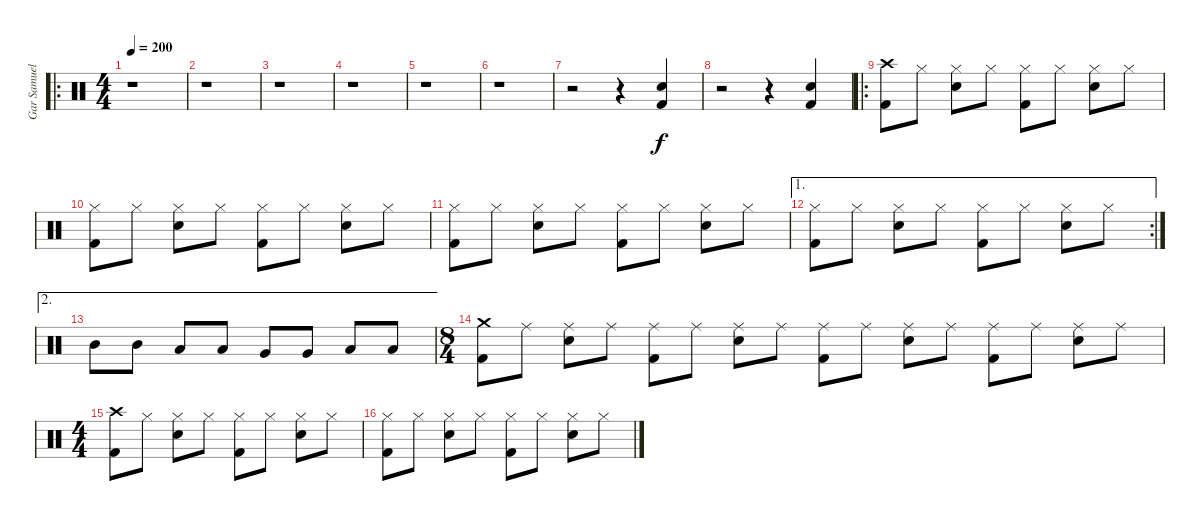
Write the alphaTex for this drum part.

\track ("Gar Samuelson" "Gar Samuel") {instrument percussion}
\staff {score}
\articulation defaults
\ro
\ts (4 4)
\tempo 200
\clef neutral
\ks c
r.1{dy f} |
r.1 |
r.1 |
r.1 |
r.1 |
r.1 |
r.2 r.4 ("Snare (hit) 2" "Kick (hit) 2").4 |
r.2 r.4 ("Snare (hit) 2" "Kick (hit) 2").4 |
\ro
("Crash high (hit)" "Kick (hit) 2").8 "Hi-Hat (closed)".8 ("Hi-Hat (closed)" "Snare (hit) 2").8 "Hi-Hat (closed)".8 ("Hi-Hat (closed)" "Kick (hit) 2").8 "Hi-Hat (closed)".8 ("Hi-Hat (closed)" "Snare (hit) 2").8 "Hi-Hat (closed)".8 |
("Hi-Hat (closed)" "Kick (hit) 2").8 "Hi-Hat (closed)".8 ("Hi-Hat (closed)" "Snare (hit) 2").8 "Hi-Hat (closed)".8 ("Hi-Hat (closed)" "Kick (hit) 2").8 "Hi-Hat (closed)".8 ("Hi-Hat (closed)" "Snare (hit) 2").8 "Hi-Hat (closed)".8 |
("Hi-Hat (closed)" "Kick (hit) 2").8 "Hi-Hat (closed)".8 ("Hi-Hat (closed)" "Snare (hit) 2").8 "Hi-Hat (closed)".8 ("Hi-Hat (closed)" "Kick (hit) 2").8 "Hi-Hat (closed)".8 ("Hi-Hat (closed)" "Snare (hit) 2").8 "Hi-Hat (closed)".8 |
\ae 1
\rc 2
("Hi-Hat (closed)" "Kick (hit) 2").8 "Hi-Hat (closed)".8 ("Hi-Hat (closed)" "Snare (hit) 2").8 "Hi-Hat (closed)".8 ("Hi-Hat (closed)" "Kick (hit) 2").8 "Hi-Hat (closed)".8 ("Hi-Hat (closed)" "Snare (hit) 2").8 "Hi-Hat (closed)".8 |
\ae 2 "Mid Tom (hit)".8 "Mid Tom (hit)".8 "Low Tom (hit)".8 "Low Tom (hit)".8 "Very Low Tom (hit)".8 "Very Low Tom (hit)".8 "Low Floor Tom (hit)".8 "Low Floor Tom (hit)".8
|
\ts (8 4)
("Crash medium (hit)" "Kick (hit) 2").8 "Ride (middle)".8 ("Ride (middle)" "Snare (hit) 2").8 "Ride (middle)".8 ("Ride (middle)" "Kick (hit) 2").8 "Ride (middle)".8 ("Ride (middle)" "Snare (hit) 2").8 "Ride (middle)".8 ("Ride (middle)" "Kick (hit) 2").8 "Ride (middle)".8 ("Ride (middle)" "Snare (hit) 2").8 "Ride (middle)".8 ("Ride (middle)" "Kick (hit) 2").8 "Ride (middle)".8 ("Ride (middle)" "Snare (hit) 2").8 "Ride (middle)".8 |
\ts (4 4)
("Crash high (hit)" "Kick (hit) 2").8 "Hi-Hat (closed)".8 ("Hi-Hat (closed)" "Snare (hit) 2").8 "Hi-Hat (closed)".8 ("Hi-Hat (closed)" "Kick (hit) 2").8 "Hi-Hat (closed)".8 ("Hi-Hat (closed)" "Snare (hit) 2").8 "Hi-Hat (closed)".8 |
("Hi-Hat (closed)" "Kick (hit) 2").8 "Hi-Hat (closed)".8 ("Hi-Hat (closed)" "Snare (hit) 2").8 "Hi-Hat (closed)".8 ("Hi-Hat (closed)" "Kick (hit) 2").8 "Hi-Hat (closed)".8 ("Hi-Hat (closed)" "Snare (hit) 2").8 "Hi-Hat (closed)".8
